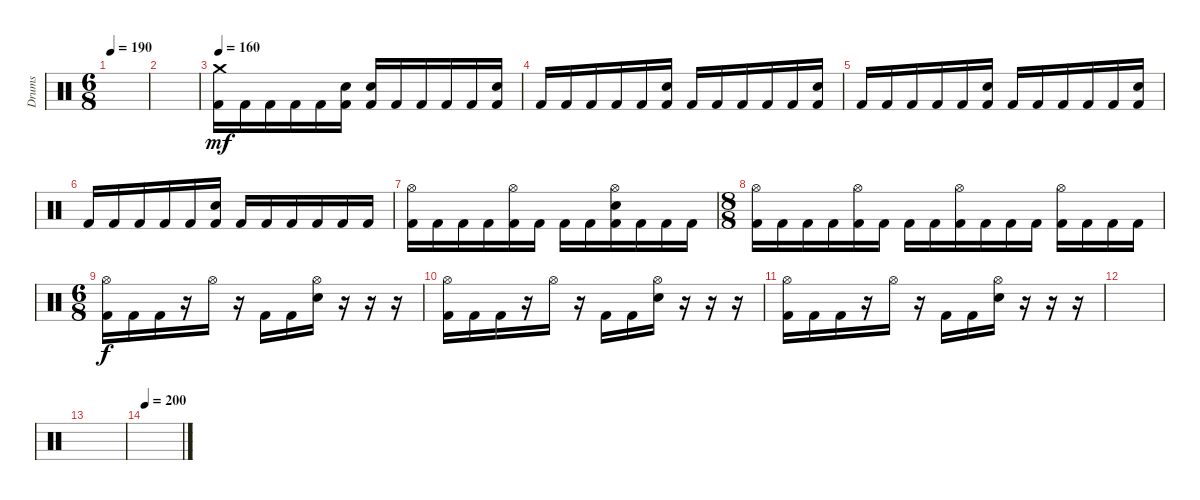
\track ("Drums" "Drums") {instrument percussion}
\staff {score}
\articulation defaults
\ts (6 8)
\tempo 190
\clef neutral
\ks c
|
|
\tempo 160
("Crash medium (hit)" "Kick (hit) 2").16{dy mf} "Kick (hit) 2".16 "Kick (hit) 2".16 "Kick (hit) 2".16 "Kick (hit) 2".16 ("Electric Snare (hit)" "Kick (hit) 2").16 ("Electric Snare (hit)" "Kick (hit) 2").16 "Kick (hit) 2".16 "Kick (hit) 2".16 "Kick (hit) 2".16 "Kick (hit) 2".16 ("Electric Snare (hit)" "Kick (hit) 2").16 |
"Kick (hit) 2".16 "Kick (hit) 2".16 "Kick (hit) 2".16 "Kick (hit) 2".16 "Kick (hit) 2".16 ("Electric Snare (hit)" "Kick (hit) 2").16 "Kick (hit) 2".16 "Kick (hit) 2".16 "Kick (hit) 2".16 "Kick (hit) 2".16 "Kick (hit) 2".16 ("Electric Snare (hit)" "Kick (hit) 2").16 |
"Kick (hit) 2".16 "Kick (hit) 2".16 "Kick (hit) 2".16 "Kick (hit) 2".16 "Kick (hit) 2".16 ("Electric Snare (hit)" "Kick (hit) 2").16 "Kick (hit) 2".16 "Kick (hit) 2".16 "Kick (hit) 2".16 "Kick (hit) 2".16 "Kick (hit) 2".16 ("Electric Snare (hit)" "Kick (hit) 2").16 |
"Kick (hit) 2".16 "Kick (hit) 2".16 "Kick (hit) 2".16 "Kick (hit) 2".16 "Kick (hit) 2".16 ("Electric Snare (hit)" "Kick (hit) 2").16 "Kick (hit) 2".16 "Kick (hit) 2".16 "Kick (hit) 2".16 "Kick (hit) 2".16 "Kick (hit) 2".16 "Kick (hit) 2".16 |
("Hi-Hat (open)" "Kick (hit) 2").16 "Kick (hit) 2".16 "Kick (hit) 2".16 "Kick (hit) 2".16 ("Hi-Hat (open)" "Kick (hit) 2").16 "Kick (hit) 2".16 "Kick (hit) 2".16 "Kick (hit) 2".16 ("Hi-Hat (open)" "Electric Snare (hit)" "Kick (hit) 2").16 "Kick (hit) 2".16 "Kick (hit) 2".16 "Kick (hit) 2".16 |
\ts (8 8)
("Hi-Hat (open)" "Kick (hit) 2").16 "Kick (hit) 2".16 "Kick (hit) 2".16 "Kick (hit) 2".16 ("Hi-Hat (open)" "Kick (hit) 2").16 "Kick (hit) 2".16 "Kick (hit) 2".16 "Kick (hit) 2".16 ("Hi-Hat (open)" "Kick (hit) 2").16 "Kick (hit) 2".16 "Kick (hit) 2".16 "Kick (hit) 2".16 ("Hi-Hat (open)" "Kick (hit) 2").16 "Kick (hit) 2".16 "Kick (hit) 2".16 "Kick (hit) 2".16 |
\ts (6 8)
("Hi-Hat (open)" "Kick (hit) 2").16{dy f} "Kick (hit) 2".16 "Kick (hit) 2".16 r.16 "Hi-Hat (open)".16 r.16 "Kick (hit) 2".16 "Kick (hit) 2".16 ("Hi-Hat (open)" "Electric Snare (hit)").16 r.16 r.16 r.16 |
("Hi-Hat (open)" "Kick (hit) 2").16 "Kick (hit) 2".16 "Kick (hit) 2".16 r.16 "Hi-Hat (open)".16 r.16 "Kick (hit) 2".16 "Kick (hit) 2".16 ("Hi-Hat (open)" "Electric Snare (hit)").16 r.16 r.16 r.16 |
("Hi-Hat (open)" "Kick (hit) 2").16 "Kick (hit) 2".16 "Kick (hit) 2".16 r.16 "Hi-Hat (open)".16 r.16 "Kick (hit) 2".16 "Kick (hit) 2".16 ("Hi-Hat (open)" "Electric Snare (hit)").16 r.16 r.16 r.16 |
|
|
\tempo 200
